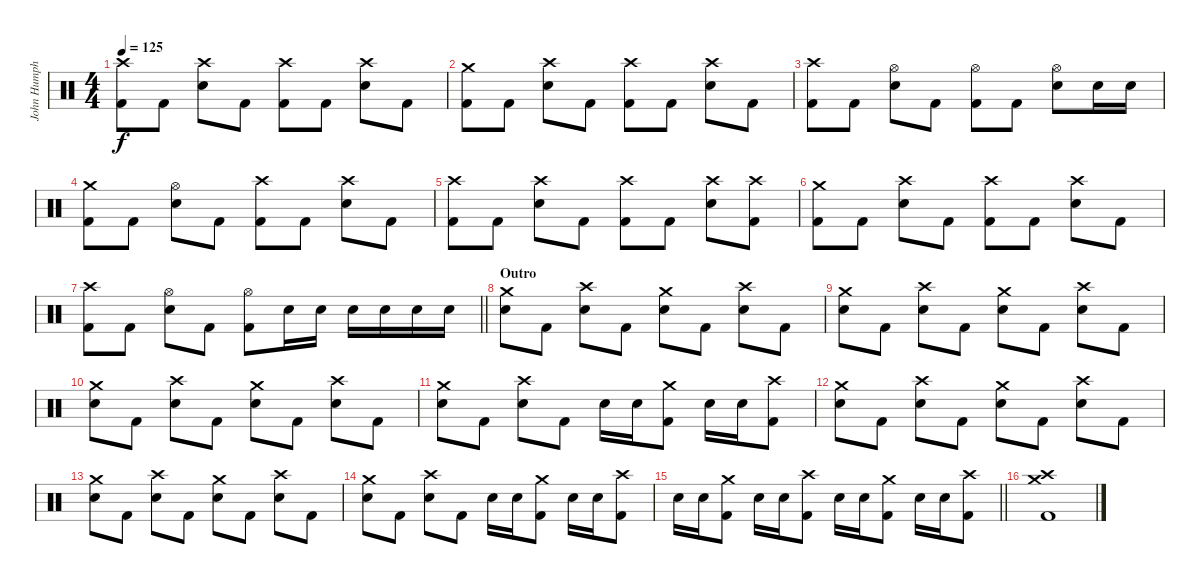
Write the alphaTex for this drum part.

\track ("John Humphrey - Drums" "John Humph") {instrument percussion}
\staff {score}
\articulation defaults
\ts (4 4)
\tempo 125
\clef neutral
\ks c
("Crash high (hit)" "Kick (hit) 2").8{dy f} "Kick (hit) 2".8 ("Crash high (hit)" "Electric Snare (hit)").8 "Kick (hit) 2".8 ("Crash high (hit)" "Kick (hit) 2").8 "Kick (hit) 2".8 ("Crash high (hit)" "Electric Snare (hit)").8 "Kick (hit) 2".8 |
("Crash medium (hit)" "Kick (hit) 2").8 "Kick (hit) 2".8 ("Crash high (hit)" "Electric Snare (hit)").8 "Kick (hit) 2".8 ("Crash high (hit)" "Kick (hit) 2").8 "Kick (hit) 2".8 ("Crash high (hit)" "Electric Snare (hit)").8 "Kick (hit) 2".8 |
("Crash high (hit)" "Kick (hit) 2").8 "Kick (hit) 2".8 ("Hi-Hat (open)" "Electric Snare (hit)").8 "Kick (hit) 2".8 ("Hi-Hat (open)" "Kick (hit) 2").8 "Kick (hit) 2".8 ("Hi-Hat (open)" "Electric Snare (hit)").8 "Electric Snare (hit)".16 "Electric Snare (hit)".16 |
("Crash medium (hit)" "Kick (hit) 2").8 "Kick (hit) 2".8 ("Hi-Hat (open)" "Electric Snare (hit)").8 "Kick (hit) 2".8 ("Crash high (hit)" "Kick (hit) 2").8 "Kick (hit) 2".8 ("Crash high (hit)" "Electric Snare (hit)").8 "Kick (hit) 2".8 |
("Crash high (hit)" "Kick (hit) 2").8 "Kick (hit) 2".8 ("Crash high (hit)" "Electric Snare (hit)").8 "Kick (hit) 2".8 ("Crash high (hit)" "Kick (hit) 2").8 "Kick (hit) 2".8 ("Crash high (hit)" "Electric Snare (hit)").8 ("Crash high (hit)" "Kick (hit) 2").8 |
("Crash medium (hit)" "Kick (hit) 2").8 "Kick (hit) 2".8 ("Crash high (hit)" "Electric Snare (hit)").8 "Kick (hit) 2".8 ("Crash high (hit)" "Kick (hit) 2").8 "Kick (hit) 2".8 ("Crash high (hit)" "Electric Snare (hit)").8 "Kick (hit) 2".8 |
\barLineRight lightlight
("Crash high (hit)" "Kick (hit) 2").8 "Kick (hit) 2".8 ("Hi-Hat (open)" "Electric Snare (hit)").8 "Kick (hit) 2".8 ("Hi-Hat (open)" "Kick (hit) 2").8 "Electric Snare (hit)".16 "Electric Snare (hit)".16 "Electric Snare (hit)".16 "Electric Snare (hit)".16 "Electric Snare (hit)".16 "Electric Snare (hit)".16 |
\section ("" "Outro")
("Crash medium (hit)" "Electric Snare (hit)").8 "Kick (hit) 2".8 ("Crash high (hit)" "Electric Snare (hit)").8 "Kick (hit) 2".8 ("Crash medium (hit)" "Electric Snare (hit)").8 "Kick (hit) 2".8 ("Crash high (hit)" "Electric Snare (hit)").8 "Kick (hit) 2".8 |
("Crash medium (hit)" "Electric Snare (hit)").8 "Kick (hit) 2".8 ("Crash high (hit)" "Electric Snare (hit)").8 "Kick (hit) 2".8 ("Crash medium (hit)" "Electric Snare (hit)").8 "Kick (hit) 2".8 ("Crash high (hit)" "Electric Snare (hit)").8 "Kick (hit) 2".8 |
("Crash medium (hit)" "Electric Snare (hit)").8 "Kick (hit) 2".8 ("Crash high (hit)" "Electric Snare (hit)").8 "Kick (hit) 2".8 ("Crash medium (hit)" "Electric Snare (hit)").8 "Kick (hit) 2".8 ("Crash high (hit)" "Electric Snare (hit)").8 "Kick (hit) 2".8 |
("Crash medium (hit)" "Electric Snare (hit)").8 "Kick (hit) 2".8 ("Crash high (hit)" "Electric Snare (hit)").8 "Kick (hit) 2".8 "Electric Snare (hit)".16 "Electric Snare (hit)".16 ("Crash medium (hit)" "Kick (hit) 2").8 "Electric Snare (hit)".16 "Electric Snare (hit)".16 ("Crash high (hit)" "Kick (hit) 2").8 |
("Crash medium (hit)" "Electric Snare (hit)").8 "Kick (hit) 2".8 ("Crash high (hit)" "Electric Snare (hit)").8 "Kick (hit) 2".8 ("Crash medium (hit)" "Electric Snare (hit)").8 "Kick (hit) 2".8 ("Crash high (hit)" "Electric Snare (hit)").8 "Kick (hit) 2".8 |
("Crash medium (hit)" "Electric Snare (hit)").8 "Kick (hit) 2".8 ("Crash high (hit)" "Electric Snare (hit)").8 "Kick (hit) 2".8 ("Crash medium (hit)" "Electric Snare (hit)").8 "Kick (hit) 2".8 ("Crash high (hit)" "Electric Snare (hit)").8 "Kick (hit) 2".8 |
("Crash medium (hit)" "Electric Snare (hit)").8 "Kick (hit) 2".8 ("Crash high (hit)" "Electric Snare (hit)").8 "Kick (hit) 2".8 "Electric Snare (hit)".16 "Electric Snare (hit)".16 ("Crash medium (hit)" "Kick (hit) 2").8 "Electric Snare (hit)".16 "Electric Snare (hit)".16 ("Crash high (hit)" "Kick (hit) 2").8 |
\barLineRight lightlight "Electric Snare (hit)".16 "Electric Snare (hit)".16
("Crash medium (hit)" "Kick (hit) 2").8 "Electric Snare (hit)".16 "Electric Snare (hit)".16 ("Crash high (hit)" "Kick (hit) 2").8 "Electric Snare (hit)".16 "Electric Snare (hit)".16 ("Crash medium (hit)" "Kick (hit) 2").8 "Electric Snare (hit)".16 "Electric Snare (hit)".16 ("Crash high (hit)" "Kick (hit) 2").8 |
("Crash medium (hit)" "Crash high (hit)" "Kick (hit) 2").1
